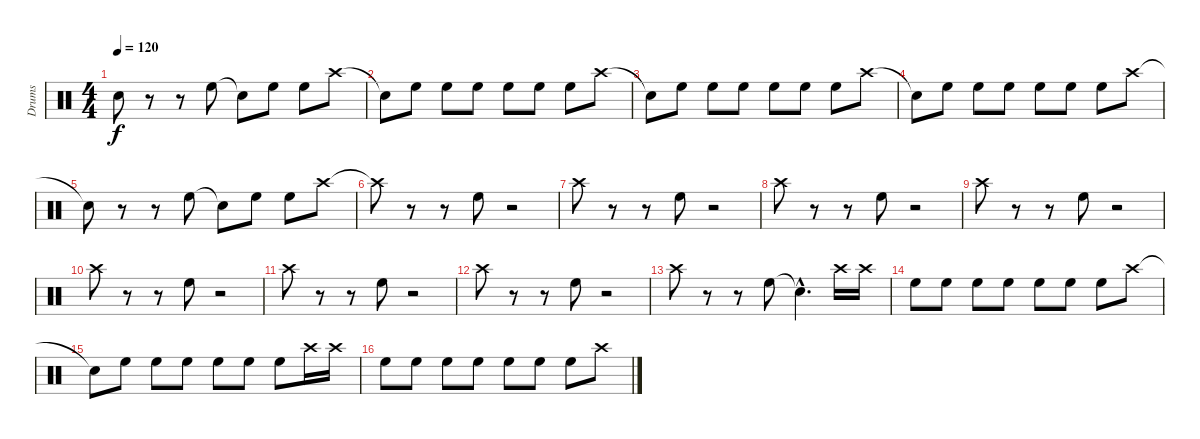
\track ("Drums" "Drums") {instrument percussion}
\staff {score}
\articulation defaults
\ts (4 4)
\tempo 120
\clef neutral
\ks c "Snare (hit)"{t}.8{dy f}
r.8 r.8 "High Floor Tom (hit)".8 "Snare (hit)"{t}.8 "High Floor Tom (hit)".8 "High Floor Tom (hit)".8 "Crash high (hit)".8 |
"Snare (hit)"{t}.8 "High Floor Tom (hit)".8 "High Floor Tom (hit)".8 "High Floor Tom (hit)".8 "High Floor Tom (hit)".8 "High Floor Tom (hit)".8 "High Floor Tom (hit)".8 "Crash high (hit)".8 |
"Snare (hit)"{t}.8 "High Floor Tom (hit)".8 "High Floor Tom (hit)".8 "High Floor Tom (hit)".8 "High Floor Tom (hit)".8 "High Floor Tom (hit)".8 "High Floor Tom (hit)".8 "Crash high (hit)".8 |
"Snare (hit)"{t}.8 "High Floor Tom (hit)".8 "High Floor Tom (hit)".8 "High Floor Tom (hit)".8 "High Floor Tom (hit)".8 "High Floor Tom (hit)".8 "High Floor Tom (hit)".8 "Crash high (hit)".8 |
"Snare (hit)"{t}.8 r.8 r.8 "High Floor Tom (hit)".8 "Snare (hit)"{t}.8 "High Floor Tom (hit)".8 "High Floor Tom (hit)".8 "Crash high (hit)".8 |
"Crash high (hit)"{t}.8 r.8 r.8 "High Floor Tom (hit)".8 r.2 |
"Crash high (hit)".8 r.8 r.8 "High Floor Tom (hit)".8 r.2 |
"Crash high (hit)".8 r.8 r.8 "High Floor Tom (hit)".8 r.2 |
"Crash high (hit)".8 r.8 r.8 "High Floor Tom (hit)".8 r.2 |
"Crash high (hit)".8 r.8 r.8 "High Floor Tom (hit)".8 r.2 |
"Crash high (hit)".8 r.8 r.8 "High Floor Tom (hit)".8 r.2 |
"Crash high (hit)".8 r.8 r.8 "High Floor Tom (hit)".8 r.2 |
"Crash high (hit)".8 r.8 r.8 "High Floor Tom (hit)".8 "Snare (hit)"{hac t}.4{d} "Crash high (hit)".16 "Crash high (hit)".16 |
"High Floor Tom (hit)".8 "High Floor Tom (hit)".8 "High Floor Tom (hit)".8 "High Floor Tom (hit)".8 "High Floor Tom (hit)".8 "High Floor Tom (hit)".8 "High Floor Tom (hit)".8 "Crash high (hit)".8 |
"Snare (hit)"{t}.8 "High Floor Tom (hit)".8 "High Floor Tom (hit)".8 "High Floor Tom (hit)".8 "High Floor Tom (hit)".8 "High Floor Tom (hit)".8 "High Floor Tom (hit)".8 "Crash high (hit)".16 "Crash high (hit)".16 |
"High Floor Tom (hit)".8 "High Floor Tom (hit)".8 "High Floor Tom (hit)".8 "High Floor Tom (hit)".8 "High Floor Tom (hit)".8 "High Floor Tom (hit)".8 "High Floor Tom (hit)".8 "Crash high (hit)".8
